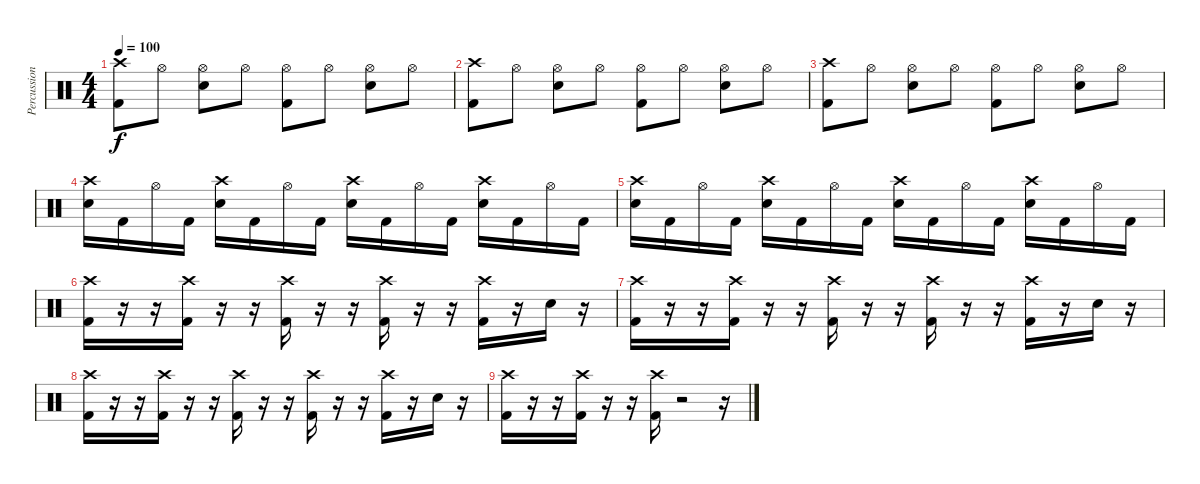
\track ("Percussion" "Percussion") {instrument percussion}
\staff {score}
\articulation defaults
\ts (4 4)
\tempo 100
\clef neutral
\ks c
("Crash high (hit)" "Kick (hit) 2").8{dy f} "Hi-Hat (open)".8 ("Hi-Hat (open)" "Snare (hit) 2").8 "Hi-Hat (open)".8 ("Hi-Hat (open)" "Kick (hit) 2").8 "Hi-Hat (open)".8 ("Hi-Hat (open)" "Snare (hit) 2").8 "Hi-Hat (open)".8 |
("Crash high (hit)" "Kick (hit) 2").8 "Hi-Hat (open)".8 ("Hi-Hat (open)" "Snare (hit) 2").8 "Hi-Hat (open)".8 ("Hi-Hat (open)" "Kick (hit) 2").8 "Hi-Hat (open)".8 ("Hi-Hat (open)" "Snare (hit) 2").8 "Hi-Hat (open)".8 |
("Crash high (hit)" "Kick (hit) 2").8 "Hi-Hat (open)".8 ("Hi-Hat (open)" "Snare (hit) 2").8 "Hi-Hat (open)".8 ("Hi-Hat (open)" "Kick (hit) 2").8 "Hi-Hat (open)".8 ("Hi-Hat (open)" "Snare (hit) 2").8 "Hi-Hat (open)".8 |
("Crash high (hit)" "Snare (hit) 2").16 "Kick (hit) 2".16 "Hi-Hat (open)".16 "Kick (hit) 2".16 ("Crash high (hit)" "Snare (hit) 2").16 "Kick (hit) 2".16 "Hi-Hat (open)".16 "Kick (hit) 2".16 ("Crash high (hit)" "Snare (hit) 2").16 "Kick (hit) 2".16 "Hi-Hat (open)".16 "Kick (hit) 2".16 ("Crash high (hit)" "Snare (hit) 2").16 "Kick (hit) 2".16 "Hi-Hat (open)".16 "Kick (hit) 2".16 |
("Crash high (hit)" "Snare (hit) 2").16 "Kick (hit) 2".16 "Hi-Hat (open)".16 "Kick (hit) 2".16 ("Crash high (hit)" "Snare (hit) 2").16 "Kick (hit) 2".16 "Hi-Hat (open)".16 "Kick (hit) 2".16 ("Crash high (hit)" "Snare (hit) 2").16 "Kick (hit) 2".16 "Hi-Hat (open)".16 "Kick (hit) 2".16 ("Crash high (hit)" "Snare (hit) 2").16 "Kick (hit) 2".16 "Hi-Hat (open)".16 "Kick (hit) 2".16 |
("Crash high (hit)" "Kick (hit) 2").16 r.16 r.16 ("Crash high (hit)" "Kick (hit) 2").16 r.16 r.16 ("Crash high (hit)" "Kick (hit) 2").16 r.16 r.16 ("Crash high (hit)" "Kick (hit) 2").16 r.16 r.16 ("Crash high (hit)" "Kick (hit) 2").16 r.16 "Snare (hit) 2".16 r.16 |
("Crash high (hit)" "Kick (hit) 2").16 r.16 r.16 ("Crash high (hit)" "Kick (hit) 2").16 r.16 r.16 ("Crash high (hit)" "Kick (hit) 2").16 r.16 r.16 ("Crash high (hit)" "Kick (hit) 2").16 r.16 r.16 ("Crash high (hit)" "Kick (hit) 2").16 r.16 "Snare (hit) 2".16 r.16 |
("Crash high (hit)" "Kick (hit) 2").16 r.16 r.16 ("Crash high (hit)" "Kick (hit) 2").16 r.16 r.16 ("Crash high (hit)" "Kick (hit) 2").16 r.16 r.16 ("Crash high (hit)" "Kick (hit) 2").16 r.16 r.16 ("Crash high (hit)" "Kick (hit) 2").16 r.16 "Snare (hit) 2".16 r.16 |
("Crash high (hit)" "Kick (hit) 2").16 r.16 r.16 ("Crash high (hit)" "Kick (hit) 2").16 r.16 r.16 ("Crash high (hit)" "Kick (hit) 2").16 r.2 r.16
